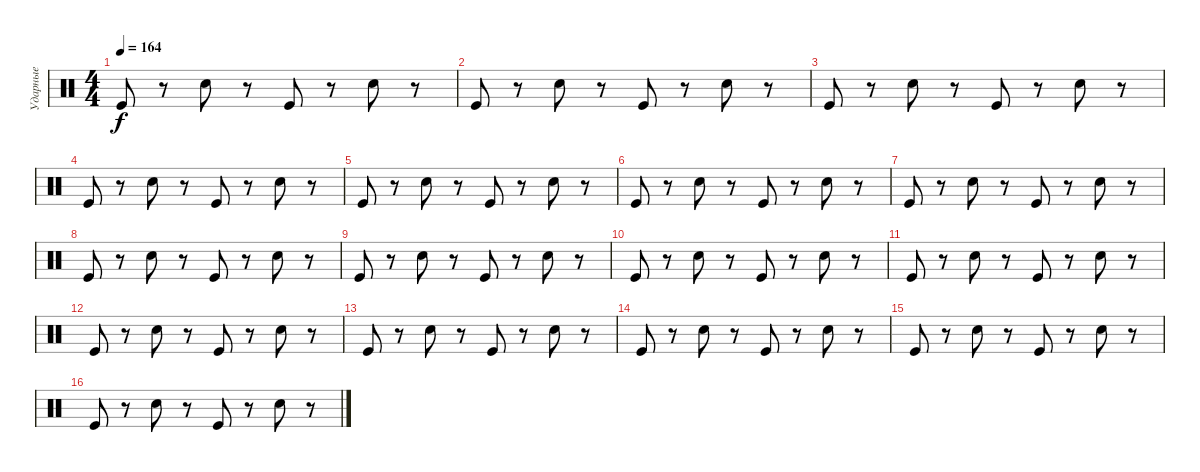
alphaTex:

\track ("Ударные" "Ударные") {instrument percussion}
\staff {score}
\articulation defaults
\ts (4 4)
\tempo 164
\clef neutral
\ks c "Kick (hit)".8{dy f}
r.8 "Snare (hit) 2".8 r.8 "Kick (hit)".8 r.8 "Snare (hit) 2".8 r.8 |
"Kick (hit)".8 r.8 "Snare (hit) 2".8 r.8 "Kick (hit)".8 r.8 "Snare (hit) 2".8 r.8 |
"Kick (hit)".8 r.8 "Snare (hit) 2".8 r.8 "Kick (hit)".8 r.8 "Snare (hit) 2".8 r.8 |
"Kick (hit)".8 r.8 "Snare (hit) 2".8 r.8 "Kick (hit)".8 r.8 "Snare (hit) 2".8 r.8 |
"Kick (hit)".8 r.8 "Snare (hit) 2".8 r.8 "Kick (hit)".8 r.8 "Snare (hit) 2".8 r.8 |
"Kick (hit)".8 r.8 "Snare (hit) 2".8 r.8 "Kick (hit)".8 r.8 "Snare (hit) 2".8 r.8 |
"Kick (hit)".8 r.8 "Snare (hit) 2".8 r.8 "Kick (hit)".8 r.8 "Snare (hit) 2".8 r.8 |
"Kick (hit)".8 r.8 "Snare (hit) 2".8 r.8 "Kick (hit)".8 r.8 "Snare (hit) 2".8 r.8 |
"Kick (hit)".8 r.8 "Snare (hit) 2".8 r.8 "Kick (hit)".8 r.8 "Snare (hit) 2".8 r.8 |
"Kick (hit)".8 r.8 "Snare (hit) 2".8 r.8 "Kick (hit)".8 r.8 "Snare (hit) 2".8 r.8 |
"Kick (hit)".8 r.8 "Snare (hit) 2".8 r.8 "Kick (hit)".8 r.8 "Snare (hit) 2".8 r.8 |
"Kick (hit)".8 r.8 "Snare (hit) 2".8 r.8 "Kick (hit)".8 r.8 "Snare (hit) 2".8 r.8 |
"Kick (hit)".8 r.8 "Snare (hit) 2".8 r.8 "Kick (hit)".8 r.8 "Snare (hit) 2".8 r.8 |
"Kick (hit)".8 r.8 "Snare (hit) 2".8 r.8 "Kick (hit)".8 r.8 "Snare (hit) 2".8 r.8 |
"Kick (hit)".8 r.8 "Snare (hit) 2".8 r.8 "Kick (hit)".8 r.8 "Snare (hit) 2".8 r.8 |
"Kick (hit)".8 r.8 "Snare (hit) 2".8 r.8 "Kick (hit)".8 r.8 "Snare (hit) 2".8 r.8
